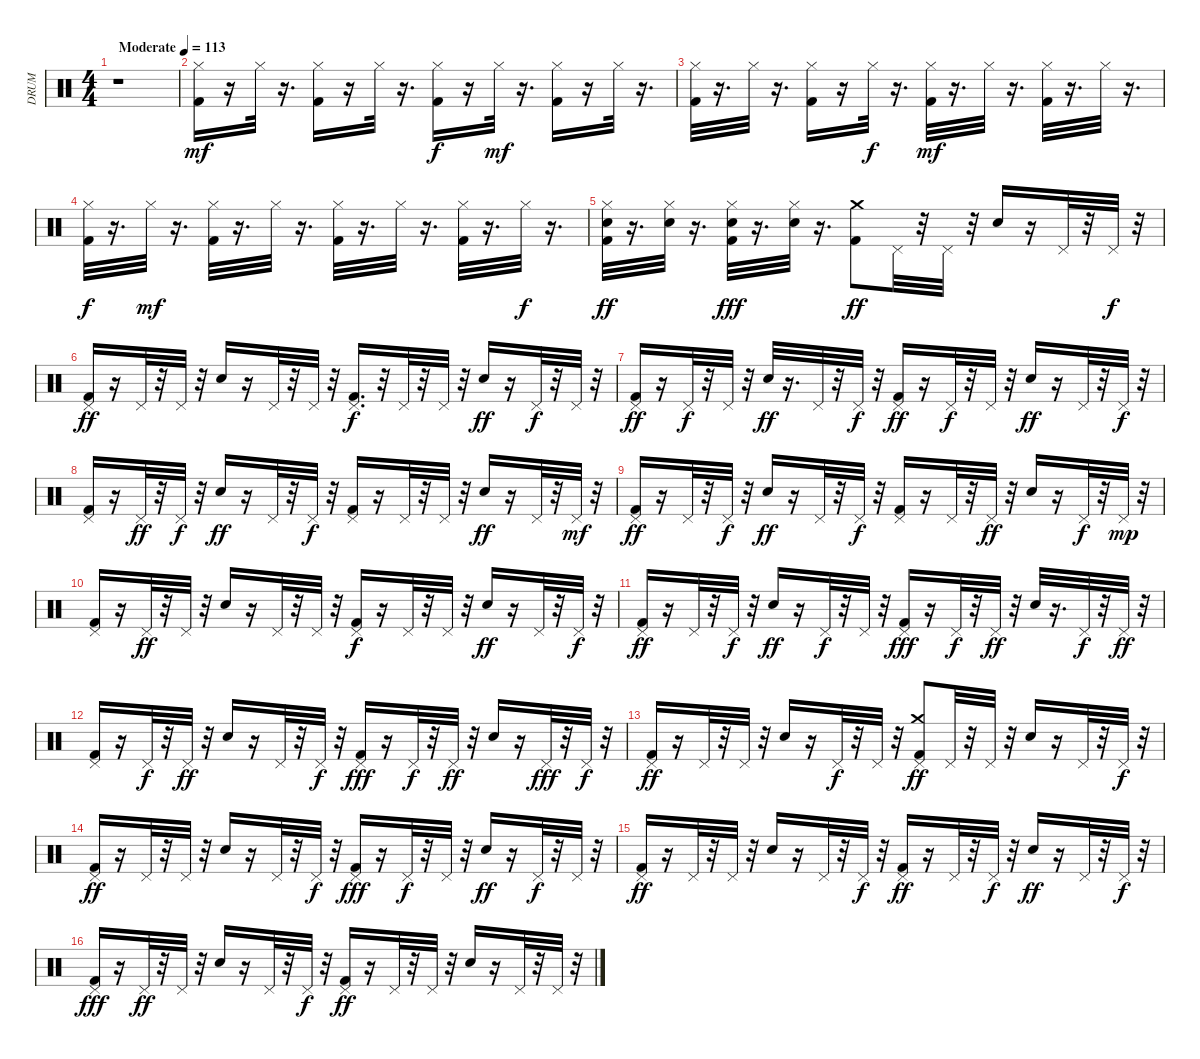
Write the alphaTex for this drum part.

\track ("DRUM" "DRUM") {instrument percussion}
\staff {score}
\articulation defaults
\ts (4 4)
\tempo (113 "Moderate")
\clef neutral
\ks c
r.1{dy mf} |
("Hi-Hat (closed)" "Kick (hit) 2").16 r.16 "Hi-Hat (closed)".32 r.16{d} ("Hi-Hat (closed)" "Kick (hit) 2").16 r.16 "Hi-Hat (closed)".32 r.16{d} ("Hi-Hat (closed)" "Kick (hit) 2").16{dy f} r.16 "Hi-Hat (closed)".32{dy mf} r.16{d} ("Hi-Hat (closed)" "Kick (hit) 2").16 r.16 "Hi-Hat (closed)".32 r.16{d} |
("Hi-Hat (closed)" "Kick (hit) 2").32 r.16{d} "Hi-Hat (closed)".32 r.16{d} ("Hi-Hat (closed)" "Kick (hit) 2").16 r.16 "Hi-Hat (closed)".32{dy f} r.16{d} ("Hi-Hat (closed)" "Kick (hit) 2").32{dy mf} r.16{d} "Hi-Hat (closed)".32 r.16{d} ("Hi-Hat (closed)" "Kick (hit) 2").32 r.16{d} "Hi-Hat (closed)".32 r.16{d} |
("Hi-Hat (closed)" "Kick (hit) 2").32{dy f} r.16{d} "Hi-Hat (closed)".32{dy mf} r.16{d} ("Hi-Hat (closed)" "Kick (hit) 2").32 r.16{d} "Hi-Hat (closed)".32 r.16{d} ("Hi-Hat (closed)" "Kick (hit) 2").32 r.16{d} "Hi-Hat (closed)".32 r.16{d} ("Hi-Hat (closed)" "Kick (hit) 2").32 r.16{d} "Hi-Hat (closed)".32{dy f} r.16{d} |
("Snare (hit) 2" "Hi-Hat (closed)" "Kick (hit) 2").32{dy ff} r.16{d} ("Snare (hit) 2" "Hi-Hat (closed)").32 r.16{d} ("Snare (hit) 2" "Hi-Hat (closed)" "Kick (hit) 2").32{dy fff} r.16{d} ("Snare (hit) 2" "Hi-Hat (closed)").32 r.16{d} ("Crash medium (hit)" "Kick (hit) 2").8{dy ff} "Pedal Hi-Hat (hit)".32 r.32 "Pedal Hi-Hat (hit)".32 r.32 "Snare (hit) 2".16 r.16 "Pedal Hi-Hat (hit)".32 r.32 "Pedal Hi-Hat (hit)".32{dy f} r.32 |
("Pedal Hi-Hat (hit)" "Kick (hit) 2").16{dy ff} r.16 "Pedal Hi-Hat (hit)".32 r.32 "Pedal Hi-Hat (hit)".32 r.32 "Snare (hit) 2".16 r.16 "Pedal Hi-Hat (hit)".32 r.32 "Pedal Hi-Hat (hit)".32 r.32 ("Pedal Hi-Hat (hit)" "Kick (hit) 2").16{d dy f} r.32 "Pedal Hi-Hat (hit)".32 r.32 "Pedal Hi-Hat (hit)".32 r.32 "Snare (hit) 2".16{dy ff} r.16 "Pedal Hi-Hat (hit)".32{dy f} r.32 "Pedal Hi-Hat (hit)".32 r.32 |
("Pedal Hi-Hat (hit)" "Kick (hit) 2").16{dy ff} r.16 "Pedal Hi-Hat (hit)".32{dy f} r.32 "Pedal Hi-Hat (hit)".32 r.32 "Snare (hit) 2".32{dy ff} r.16{d} "Pedal Hi-Hat (hit)".32 r.32 "Pedal Hi-Hat (hit)".32{dy f} r.32 ("Pedal Hi-Hat (hit)" "Kick (hit) 2").16{dy ff} r.16 "Pedal Hi-Hat (hit)".32{dy f} r.32 "Pedal Hi-Hat (hit)".32 r.32 "Snare (hit) 2".16{dy ff} r.16 "Pedal Hi-Hat (hit)".32 r.32 "Pedal Hi-Hat (hit)".32{dy f} r.32 |
("Pedal Hi-Hat (hit)" "Kick (hit) 2").16 r.16 "Pedal Hi-Hat (hit)".32{dy ff} r.32 "Pedal Hi-Hat (hit)".32{dy f} r.32 "Snare (hit) 2".16{dy ff} r.16 "Pedal Hi-Hat (hit)".32 r.32 "Pedal Hi-Hat (hit)".32{dy f} r.32 ("Pedal Hi-Hat (hit)" "Kick (hit) 2").16 r.16 "Pedal Hi-Hat (hit)".32 r.32 "Pedal Hi-Hat (hit)".32 r.32 "Snare (hit) 2".16{dy ff} r.16 "Pedal Hi-Hat (hit)".32 r.32 "Pedal Hi-Hat (hit)".32{dy mf} r.32 |
("Pedal Hi-Hat (hit)" "Kick (hit) 2").16{dy ff} r.16 "Pedal Hi-Hat (hit)".32 r.32 "Pedal Hi-Hat (hit)".32{dy f} r.32 "Snare (hit) 2".16{dy ff} r.16 "Pedal Hi-Hat (hit)".32 r.32 "Pedal Hi-Hat (hit)".32{dy f} r.32 ("Pedal Hi-Hat (hit)" "Kick (hit) 2").16 r.16 "Pedal Hi-Hat (hit)".32 r.32 "Pedal Hi-Hat (hit)".32{dy ff} r.32 "Snare (hit) 2".16 r.16 "Pedal Hi-Hat (hit)".32{dy f} r.32 "Pedal Hi-Hat (hit)".32{dy mp} r.32 |
("Pedal Hi-Hat (hit)" "Kick (hit) 2").16 r.16 "Pedal Hi-Hat (hit)".32{dy ff} r.32 "Pedal Hi-Hat (hit)".32 r.32 "Snare (hit) 2".16 r.16 "Pedal Hi-Hat (hit)".32 r.32 "Pedal Hi-Hat (hit)".32 r.32 ("Pedal Hi-Hat (hit)" "Kick (hit) 2").16{dy f} r.16 "Pedal Hi-Hat (hit)".32 r.32 "Pedal Hi-Hat (hit)".32 r.32 "Snare (hit) 2".16{dy ff} r.16 "Pedal Hi-Hat (hit)".32 r.32 "Pedal Hi-Hat (hit)".32{dy f} r.32 |
("Pedal Hi-Hat (hit)" "Kick (hit) 2").16{dy ff} r.16 "Pedal Hi-Hat (hit)".32 r.32 "Pedal Hi-Hat (hit)".32{dy f} r.32 "Snare (hit) 2".16{dy ff} r.16 "Pedal Hi-Hat (hit)".32{dy f} r.32 "Pedal Hi-Hat (hit)".32 r.32 ("Pedal Hi-Hat (hit)" "Kick (hit) 2").16{dy fff} r.16 "Pedal Hi-Hat (hit)".32{dy f} r.32 "Pedal Hi-Hat (hit)".32{dy ff} r.32 "Snare (hit) 2".32 r.16{d} "Pedal Hi-Hat (hit)".32{dy f} r.32 "Pedal Hi-Hat (hit)".32{dy ff} r.32 |
("Pedal Hi-Hat (hit)" "Kick (hit) 2").16 r.16 "Pedal Hi-Hat (hit)".32{dy f} r.32 "Pedal Hi-Hat (hit)".32{dy ff} r.32 "Snare (hit) 2".16 r.16 "Pedal Hi-Hat (hit)".32 r.32 "Pedal Hi-Hat (hit)".32{dy f} r.32 ("Pedal Hi-Hat (hit)" "Kick (hit) 2").16{dy fff} r.16 "Pedal Hi-Hat (hit)".32{dy f} r.32 "Pedal Hi-Hat (hit)".32{dy ff} r.32 "Snare (hit) 2".16 r.16 "Pedal Hi-Hat (hit)".32{dy fff} r.32 "Pedal Hi-Hat (hit)".32{dy f} r.32 |
("Pedal Hi-Hat (hit)" "Kick (hit) 2").16{dy ff} r.16 "Pedal Hi-Hat (hit)".32 r.32 "Pedal Hi-Hat (hit)".32 r.32 "Snare (hit) 2".16 r.16 "Pedal Hi-Hat (hit)".32{dy f} r.32 "Pedal Hi-Hat (hit)".32 r.32 ("Crash medium (hit)" "Pedal Hi-Hat (hit)" "Kick (hit) 2").8{dy ff} "Pedal Hi-Hat (hit)".32 r.32 "Pedal Hi-Hat (hit)".32 r.32 "Snare (hit) 2".16 r.16 "Pedal Hi-Hat (hit)".32 r.32 "Pedal Hi-Hat (hit)".32{dy f} r.32 |
("Pedal Hi-Hat (hit)" "Kick (hit) 2").16{dy ff} r.16 "Pedal Hi-Hat (hit)".32 r.32 "Pedal Hi-Hat (hit)".32 r.32 "Snare (hit) 2".16 r.16 "Pedal Hi-Hat (hit)".32 r.32 "Pedal Hi-Hat (hit)".32{dy f} r.32 ("Pedal Hi-Hat (hit)" "Kick (hit) 2").16{dy fff} r.16 "Pedal Hi-Hat (hit)".32{dy f} r.32 "Pedal Hi-Hat (hit)".32 r.32 "Snare (hit) 2".16{dy ff} r.16 "Pedal Hi-Hat (hit)".32{dy f} r.32 "Pedal Hi-Hat (hit)".32 r.32 |
("Pedal Hi-Hat (hit)" "Kick (hit) 2").16{dy ff} r.16 "Pedal Hi-Hat (hit)".32 r.32 "Pedal Hi-Hat (hit)".32 r.32 "Snare (hit) 2".16 r.16 "Pedal Hi-Hat (hit)".32 r.32 "Pedal Hi-Hat (hit)".32{dy f} r.32 ("Pedal Hi-Hat (hit)" "Kick (hit) 2").16{dy ff} r.16 "Pedal Hi-Hat (hit)".32 r.32 "Pedal Hi-Hat (hit)".32{dy f} r.32 "Snare (hit) 2".16{dy ff} r.16 "Pedal Hi-Hat (hit)".32 r.32 "Pedal Hi-Hat (hit)".32{dy f} r.32 |
("Pedal Hi-Hat (hit)" "Kick (hit) 2").16{dy fff} r.16 "Pedal Hi-Hat (hit)".32{dy ff} r.32 "Pedal Hi-Hat (hit)".32 r.32 "Snare (hit) 2".16 r.16 "Pedal Hi-Hat (hit)".32 r.32 "Pedal Hi-Hat (hit)".32{dy f} r.32 ("Pedal Hi-Hat (hit)" "Kick (hit) 2").16{dy ff} r.16 "Pedal Hi-Hat (hit)".32 r.32 "Pedal Hi-Hat (hit)".32 r.32 "Snare (hit) 2".16 r.16 "Pedal Hi-Hat (hit)".32 r.32 "Pedal Hi-Hat (hit)".32 r.32
